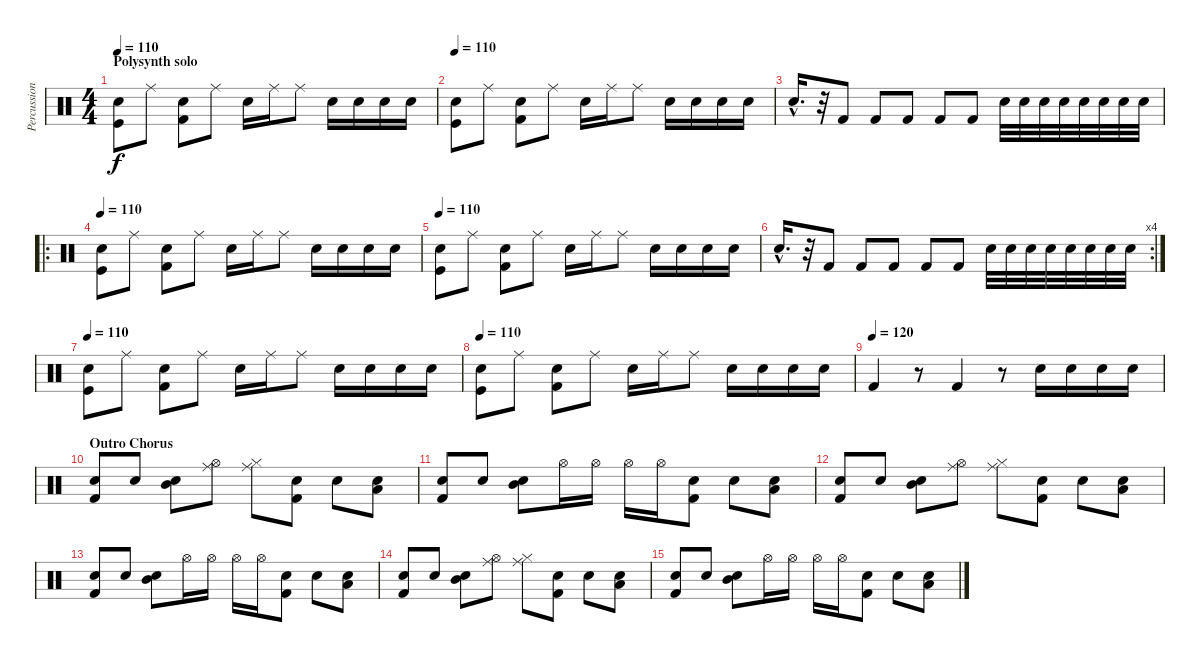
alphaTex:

\track ("Percussions" "Percussion") {instrument percussion}
\staff {score}
\articulation defaults
\ts (4 4)
\section ("" "Polysynth solo ")
\tempo 110
\clef neutral
\ks c
("Snare (hit) 2" "Kick (hit)").8{dy f} "Ride (middle)".8 ("Snare (hit) 2" "Kick (hit) 2").8 "Ride (middle)".8 "Snare (hit) 2".16 "Ride (middle)".16 "Ride (middle)".8 "Snare (hit) 2".16 "Snare (hit) 2".16 "Snare (hit) 2".16 "Snare (hit) 2".16 |
\tempo 110
("Snare (hit) 2" "Kick (hit)").8 "Ride (middle)".8 ("Snare (hit) 2" "Kick (hit) 2").8 "Ride (middle)".8 "Snare (hit) 2".16 "Ride (middle)".16 "Ride (middle)".8 "Snare (hit) 2".16 "Snare (hit) 2".16 "Snare (hit) 2".16 "Snare (hit) 2".16 |
"Snare (hit) 2"{hac}.16{d} r.32 "Kick (hit) 2".8 "Kick (hit) 2".8 "Kick (hit) 2".8 "Kick (hit) 2".8 "Kick (hit) 2".8 "Snare (hit) 2".32 "Snare (hit) 2".32 "Snare (hit) 2".32 "Snare (hit) 2".32 "Snare (hit) 2".32 "Snare (hit) 2".32 "Snare (hit) 2".32 "Snare (hit) 2".32 |
\ro
\tempo 110
("Snare (hit) 2" "Kick (hit)").8 "Ride (middle)".8 ("Snare (hit) 2" "Kick (hit) 2").8 "Ride (middle)".8 "Snare (hit) 2".16 "Ride (middle)".16 "Ride (middle)".8 "Snare (hit) 2".16 "Snare (hit) 2".16 "Snare (hit) 2".16 "Snare (hit) 2".16 |
\tempo 110
("Snare (hit) 2" "Kick (hit)").8 "Ride (middle)".8 ("Snare (hit) 2" "Kick (hit) 2").8 "Ride (middle)".8 "Snare (hit) 2".16 "Ride (middle)".16 "Ride (middle)".8 "Snare (hit) 2".16 "Snare (hit) 2".16 "Snare (hit) 2".16 "Snare (hit) 2".16 |
\rc 4 "Snare (hit) 2"{hac}.16{d}
r.32 "Kick (hit) 2".8 "Kick (hit) 2".8 "Kick (hit) 2".8 "Kick (hit) 2".8 "Kick (hit) 2".8 "Snare (hit) 2".32 "Snare (hit) 2".32 "Snare (hit) 2".32 "Snare (hit) 2".32 "Snare (hit) 2".32 "Snare (hit) 2".32 "Snare (hit) 2".32 "Snare (hit) 2".32 |
\tempo 110
("Snare (hit) 2" "Kick (hit)").8 "Ride (middle)".8 ("Snare (hit) 2" "Kick (hit) 2").8 "Ride (middle)".8 "Snare (hit) 2".16 "Ride (middle)".16 "Ride (middle)".8 "Snare (hit) 2".16 "Snare (hit) 2".16 "Snare (hit) 2".16 "Snare (hit) 2".16 |
\tempo 110
("Snare (hit) 2" "Kick (hit)").8 "Ride (middle)".8 ("Snare (hit) 2" "Kick (hit) 2").8 "Ride (middle)".8 "Snare (hit) 2".16 "Ride (middle)".16 "Ride (middle)".8 "Snare (hit) 2".16 "Snare (hit) 2".16 "Snare (hit) 2".16 "Snare (hit) 2".16 |
\tempo (120)
"Kick (hit) 2".4 r.8 "Kick (hit) 2".4 r.8 "Snare (hit) 2".16 "Snare (hit) 2".16 "Snare (hit) 2".16 "Snare (hit) 2".16 |
\section ("" "Outro Chorus")
("Snare (hit) 2" "Kick (hit) 2").8 "Snare (hit) 2".8 ("Snare (hit) 2" "Mid Tom (hit)").8 ("Hi-Hat (open)" "Ride (middle)").8 ("Hi-Hat (closed)" "Ride (middle)").8 ("Snare (hit) 2" "Kick (hit) 2").8 "Snare (hit) 2".8 ("Snare (hit) 2" "Low Tom (hit)").8 |
("Snare (hit) 2" "Kick (hit) 2").8 "Snare (hit) 2".8 ("Snare (hit) 2" "Mid Tom (hit)").8 "Hi-Hat (open)".16 "Hi-Hat (open)".16 "Hi-Hat (open)".16 "Hi-Hat (open)".16 ("Snare (hit) 2" "Kick (hit) 2").8 "Snare (hit) 2".8 ("Snare (hit) 2" "Low Tom (hit)").8 |
("Snare (hit) 2" "Kick (hit) 2").8{volume 7} "Snare (hit) 2".8 ("Snare (hit) 2" "Mid Tom (hit)").8 ("Hi-Hat (open)" "Ride (middle)").8 ("Hi-Hat (closed)" "Ride (middle)").8 ("Snare (hit) 2" "Kick (hit) 2").8 "Snare (hit) 2".8 ("Snare (hit) 2" "Low Tom (hit)").8 |
("Snare (hit) 2" "Kick (hit) 2").8 "Snare (hit) 2".8 ("Snare (hit) 2" "Mid Tom (hit)").8 "Hi-Hat (open)".16 "Hi-Hat (open)".16 "Hi-Hat (open)".16 "Hi-Hat (open)".16 ("Snare (hit) 2" "Kick (hit) 2").8 "Snare (hit) 2".8 ("Snare (hit) 2" "Low Tom (hit)").8 |
("Snare (hit) 2" "Kick (hit) 2").8{volume 0} "Snare (hit) 2".8 ("Snare (hit) 2" "Mid Tom (hit)").8 ("Hi-Hat (open)" "Ride (middle)").8 ("Hi-Hat (closed)" "Ride (middle)").8 ("Snare (hit) 2" "Kick (hit) 2").8 "Snare (hit) 2".8 ("Snare (hit) 2" "Low Tom (hit)").8 |
("Snare (hit) 2" "Kick (hit) 2").8 "Snare (hit) 2".8 ("Snare (hit) 2" "Mid Tom (hit)").8 "Hi-Hat (open)".16 "Hi-Hat (open)".16 "Hi-Hat (open)".16 "Hi-Hat (open)".16 ("Snare (hit) 2" "Kick (hit) 2").8 "Snare (hit) 2".8 ("Snare (hit) 2" "Low Tom (hit)").8
